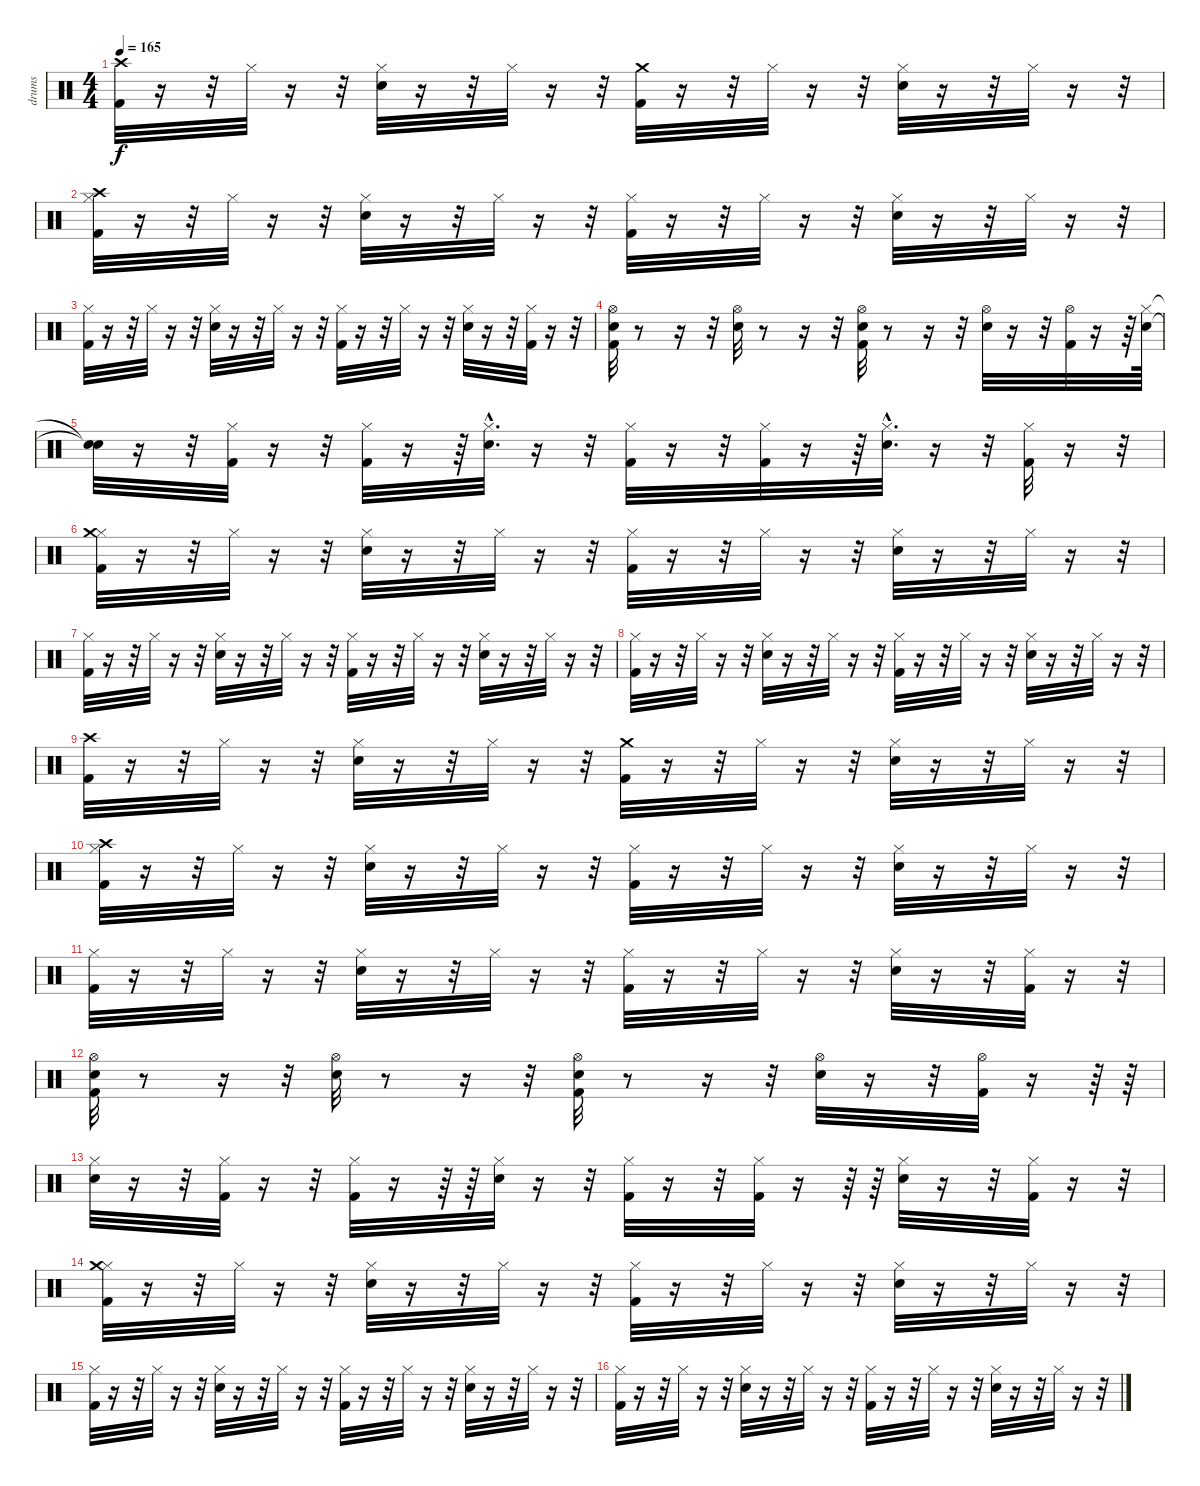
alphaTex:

\track ("drums" "drums") {instrument percussion}
\staff {score}
\articulation defaults
\ts (4 4)
\tempo 165
\clef neutral
\ks c
("Crash high (hit)" "Kick (hit) 2").32{dy f} r.16 r.32 "Hi-Hat (closed)".32 r.16 r.32 ("Hi-Hat (closed)" "Electric Snare (hit)").32 r.16 r.32 "Hi-Hat (closed)".32 r.16 r.32 ("Crash medium (hit)" "Kick (hit) 2").32 r.16 r.32 "Hi-Hat (closed)".32 r.16 r.32 ("Hi-Hat (closed)" "Electric Snare (hit)").32 r.16 r.32 "Hi-Hat (closed)".32 r.16 r.32 |
("Crash high (hit)" "Hi-Hat (closed)" "Kick (hit) 2").32 r.16 r.32 "Hi-Hat (closed)".32 r.16 r.32 ("Hi-Hat (closed)" "Electric Snare (hit)").32 r.16 r.32 "Hi-Hat (closed)".32 r.16 r.32 ("Hi-Hat (closed)" "Kick (hit) 2").32 r.16 r.32 "Hi-Hat (closed)".32 r.16 r.32 ("Hi-Hat (closed)" "Electric Snare (hit)").32 r.16 r.32 "Hi-Hat (closed)".32 r.16 r.32 |
("Hi-Hat (closed)" "Kick (hit) 2").32 r.16 r.32 "Hi-Hat (closed)".32 r.16 r.32 ("Hi-Hat (closed)" "Electric Snare (hit)").32 r.16 r.32 "Hi-Hat (closed)".32 r.16 r.32 ("Hi-Hat (closed)" "Kick (hit) 2").32 r.16 r.32 "Hi-Hat (closed)".32 r.16 r.32 ("Hi-Hat (closed)" "Electric Snare (hit)").32 r.16 r.32 ("Kick (hit) 2" "Hi-Hat (closed)").32 r.16 r.32 |
("Electric Snare (hit)" "Hi-Hat (open)" "Kick (hit) 2").32 r.8 r.16 r.32 ("Electric Snare (hit)" "Hi-Hat (open)").32 r.8 r.16 r.32 ("Electric Snare (hit)" "Hi-Hat (open)" "Kick (hit) 2").32 r.8 r.16 r.32 ("Hi-Hat (open)" "Electric Snare (hit)").32 r.16 r.32 ("Kick (hit) 2" "Hi-Hat (open)").32 r.16 r.64 ("Hi-Hat (closed)" "Electric Snare (hit)").64 |
("Snare (hit)"{t} "Snare (hit)"{t}).32 r.16 r.32 ("Kick (hit) 2" "Hi-Hat (closed)").32 r.16 r.32 ("Hi-Hat (closed)" "Kick (hit) 2").32 r.16 r.64 ("Electric Snare (hit)"{hac} "Hi-Hat (closed)"{hac}).32{d} r.16 r.32 ("Hi-Hat (closed)" "Kick (hit) 2").32 r.16 r.32 ("Hi-Hat (closed)" "Kick (hit) 2").32 r.16 r.64 ("Hi-Hat (closed)"{hac} "Electric Snare (hit)"{hac}).32{d} r.16 r.32 ("Kick (hit) 2" "Hi-Hat (closed)").32 r.16 r.32 |
("Kick (hit) 2" "Hi-Hat (closed)" "Crash medium (hit)").32 r.16 r.32 "Hi-Hat (closed)".32 r.16 r.32 ("Hi-Hat (closed)" "Electric Snare (hit)").32 r.16 r.32 "Hi-Hat (closed)".32 r.16 r.32 ("Hi-Hat (closed)" "Kick (hit) 2").32 r.16 r.32 "Hi-Hat (closed)".32 r.16 r.32 ("Hi-Hat (closed)" "Electric Snare (hit)").32 r.16 r.32 "Hi-Hat (closed)".32 r.16 r.32 |
("Hi-Hat (closed)" "Kick (hit) 2").32 r.16 r.32 "Hi-Hat (closed)".32 r.16 r.32 ("Hi-Hat (closed)" "Electric Snare (hit)").32 r.16 r.32 "Hi-Hat (closed)".32 r.16 r.32 ("Hi-Hat (closed)" "Kick (hit) 2").32 r.16 r.32 "Hi-Hat (closed)".32 r.16 r.32 ("Hi-Hat (closed)" "Electric Snare (hit)").32 r.16 r.32 "Hi-Hat (closed)".32 r.16 r.32 |
("Hi-Hat (closed)" "Kick (hit) 2").32 r.16 r.32 "Hi-Hat (closed)".32 r.16 r.32 ("Hi-Hat (closed)" "Electric Snare (hit)").32 r.16 r.32 "Hi-Hat (closed)".32 r.16 r.32 ("Hi-Hat (closed)" "Kick (hit) 2").32 r.16 r.32 "Hi-Hat (closed)".32 r.16 r.32 ("Hi-Hat (closed)" "Electric Snare (hit)").32 r.16 r.32 "Hi-Hat (closed)".32 r.16 r.32 |
("Crash high (hit)" "Kick (hit) 2").32 r.16 r.32 "Hi-Hat (closed)".32 r.16 r.32 ("Hi-Hat (closed)" "Electric Snare (hit)").32 r.16 r.32 "Hi-Hat (closed)".32 r.16 r.32 ("Crash medium (hit)" "Kick (hit) 2").32 r.16 r.32 "Hi-Hat (closed)".32 r.16 r.32 ("Hi-Hat (closed)" "Electric Snare (hit)").32 r.16 r.32 "Hi-Hat (closed)".32 r.16 r.32 |
("Crash high (hit)" "Hi-Hat (closed)" "Kick (hit) 2").32 r.16 r.32 "Hi-Hat (closed)".32 r.16 r.32 ("Hi-Hat (closed)" "Electric Snare (hit)").32 r.16 r.32 "Hi-Hat (closed)".32 r.16 r.32 ("Hi-Hat (closed)" "Kick (hit) 2").32 r.16 r.32 "Hi-Hat (closed)".32 r.16 r.32 ("Hi-Hat (closed)" "Electric Snare (hit)").32 r.16 r.32 "Hi-Hat (closed)".32 r.16 r.32 |
("Hi-Hat (closed)" "Kick (hit) 2").32 r.16 r.32 "Hi-Hat (closed)".32 r.16 r.32 ("Hi-Hat (closed)" "Electric Snare (hit)").32 r.16 r.32 "Hi-Hat (closed)".32 r.16 r.32 ("Hi-Hat (closed)" "Kick (hit) 2").32 r.16 r.32 "Hi-Hat (closed)".32 r.16 r.32 ("Hi-Hat (closed)" "Electric Snare (hit)").32 r.16 r.32 ("Kick (hit) 2" "Hi-Hat (closed)").32 r.16 r.32 |
("Electric Snare (hit)" "Hi-Hat (open)" "Kick (hit) 2").32 r.8 r.16 r.32 ("Electric Snare (hit)" "Hi-Hat (open)").32 r.8 r.16 r.32 ("Electric Snare (hit)" "Hi-Hat (open)" "Kick (hit) 2").32 r.8 r.16 r.32 ("Hi-Hat (open)" "Electric Snare (hit)").32 r.16 r.32 ("Kick (hit) 2" "Hi-Hat (open)").32 r.16 r.64 r.64 |
("Hi-Hat (closed)" "Electric Snare (hit)").32 r.16 r.32 ("Kick (hit) 2" "Hi-Hat (closed)").32 r.16 r.32 ("Hi-Hat (closed)" "Kick (hit) 2").32 r.16 r.64 r.64 ("Electric Snare (hit)" "Hi-Hat (closed)").32 r.16 r.32 ("Hi-Hat (closed)" "Kick (hit) 2").32 r.16 r.32 ("Hi-Hat (closed)" "Kick (hit) 2").32 r.16 r.64 r.64 ("Hi-Hat (closed)" "Electric Snare (hit)").32 r.16 r.32 ("Kick (hit) 2" "Hi-Hat (closed)").32 r.16 r.32 |
("Kick (hit) 2" "Hi-Hat (closed)" "Crash medium (hit)").32 r.16 r.32 "Hi-Hat (closed)".32 r.16 r.32 ("Hi-Hat (closed)" "Electric Snare (hit)").32 r.16 r.32 "Hi-Hat (closed)".32 r.16 r.32 ("Hi-Hat (closed)" "Kick (hit) 2").32 r.16 r.32 "Hi-Hat (closed)".32 r.16 r.32 ("Hi-Hat (closed)" "Electric Snare (hit)").32 r.16 r.32 "Hi-Hat (closed)".32 r.16 r.32 |
("Hi-Hat (closed)" "Kick (hit) 2").32 r.16 r.32 "Hi-Hat (closed)".32 r.16 r.32 ("Hi-Hat (closed)" "Electric Snare (hit)").32 r.16 r.32 "Hi-Hat (closed)".32 r.16 r.32 ("Hi-Hat (closed)" "Kick (hit) 2").32 r.16 r.32 "Hi-Hat (closed)".32 r.16 r.32 ("Hi-Hat (closed)" "Electric Snare (hit)").32 r.16 r.32 "Hi-Hat (closed)".32 r.16 r.32 |
("Hi-Hat (closed)" "Kick (hit) 2").32 r.16 r.32 "Hi-Hat (closed)".32 r.16 r.32 ("Hi-Hat (closed)" "Electric Snare (hit)").32 r.16 r.32 "Hi-Hat (closed)".32 r.16 r.32 ("Hi-Hat (closed)" "Kick (hit) 2").32 r.16 r.32 "Hi-Hat (closed)".32 r.16 r.32 ("Hi-Hat (closed)" "Electric Snare (hit)").32 r.16 r.32 "Hi-Hat (closed)".32 r.16 r.32
